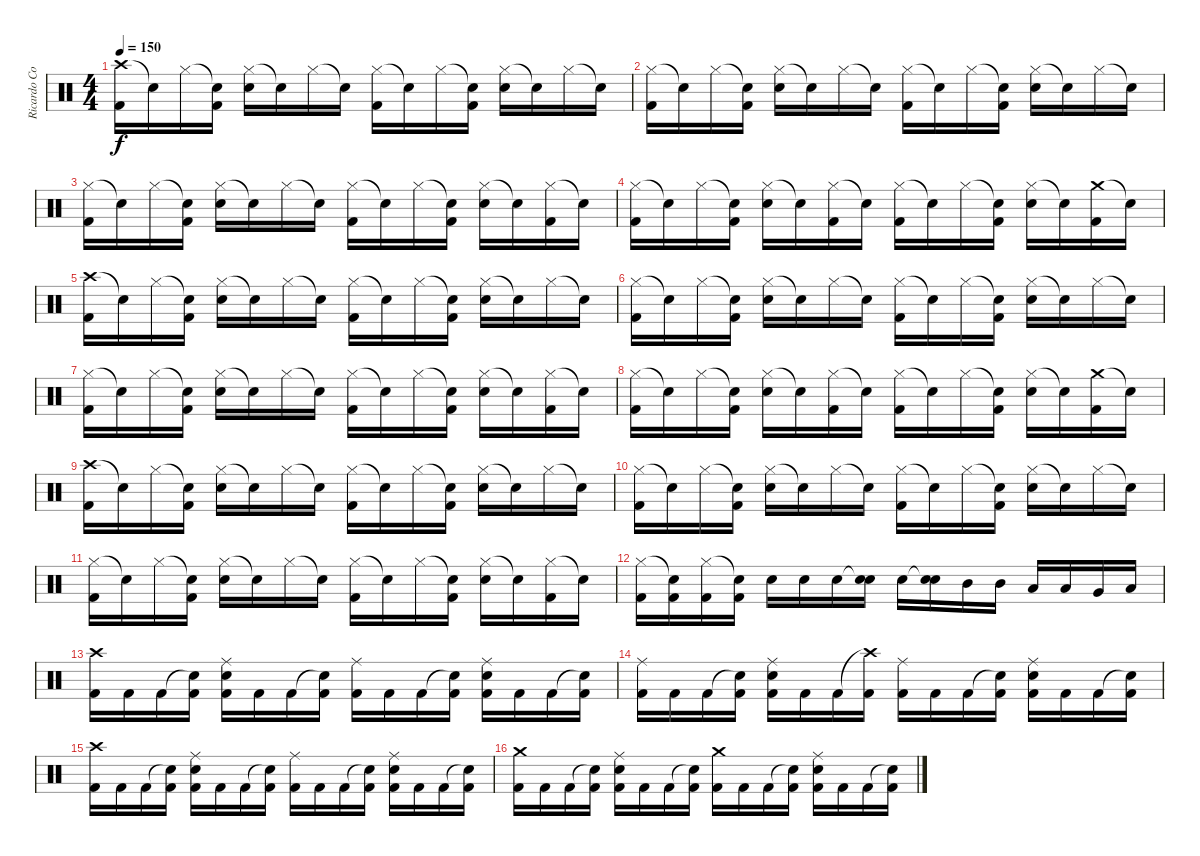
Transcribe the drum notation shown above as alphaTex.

\track ("Ricardo Confessori" "Ricardo Co") {instrument percussion}
\staff {score}
\articulation defaults
\ts (4 4)
\tempo 150
\clef neutral
\ks c
("Crash high (hit)" "Kick (hit) 2").16{dy f} "Snare (hit)"{t}.16 "Hi-Hat (closed)".16 ("Snare (hit)"{t} "Kick (hit) 2").16 ("Hi-Hat (closed)" "Electric Snare (hit)").16 "Snare (hit)"{t}.16 "Hi-Hat (closed)".16 "Snare (hit)"{t}.16 ("Hi-Hat (closed)" "Kick (hit) 2").16 "Snare (hit)"{t}.16 "Hi-Hat (closed)".16 ("Snare (hit)"{t} "Kick (hit) 2").16 ("Hi-Hat (closed)" "Electric Snare (hit)").16 "Snare (hit)"{t}.16 "Hi-Hat (closed)".16 "Snare (hit)"{t}.16 |
("Hi-Hat (closed)" "Kick (hit) 2").16 "Snare (hit)"{t}.16 "Hi-Hat (closed)".16 ("Snare (hit)"{t} "Kick (hit) 2").16 ("Hi-Hat (closed)" "Electric Snare (hit)").16 "Snare (hit)"{t}.16 "Hi-Hat (closed)".16 "Snare (hit)"{t}.16 ("Hi-Hat (closed)" "Kick (hit) 2").16 "Snare (hit)"{t}.16 "Hi-Hat (closed)".16 ("Snare (hit)"{t} "Kick (hit) 2").16 ("Hi-Hat (closed)" "Electric Snare (hit)").16 "Snare (hit)"{t}.16 "Hi-Hat (closed)".16 "Snare (hit)"{t}.16 |
("Hi-Hat (closed)" "Kick (hit) 2").16 "Snare (hit)"{t}.16 "Hi-Hat (closed)".16 ("Snare (hit)"{t} "Kick (hit) 2").16 ("Hi-Hat (closed)" "Electric Snare (hit)").16 "Snare (hit)"{t}.16 "Hi-Hat (closed)".16 "Snare (hit)"{t}.16 ("Hi-Hat (closed)" "Kick (hit) 2").16 "Snare (hit)"{t}.16 "Hi-Hat (closed)".16 ("Snare (hit)"{t} "Kick (hit) 2").16 ("Hi-Hat (closed)" "Electric Snare (hit)").16 "Snare (hit)"{t}.16 ("Hi-Hat (closed)" "Kick (hit) 2").16 "Snare (hit)"{t}.16 |
("Hi-Hat (closed)" "Kick (hit) 2").16 "Snare (hit)"{t}.16 "Hi-Hat (closed)".16 ("Snare (hit)"{t} "Kick (hit) 2").16 ("Hi-Hat (closed)" "Electric Snare (hit)").16 "Snare (hit)"{t}.16 ("Hi-Hat (closed)" "Kick (hit) 2").16 "Snare (hit)"{t}.16 ("Hi-Hat (closed)" "Kick (hit) 2").16 "Snare (hit)"{t}.16 "Hi-Hat (closed)".16 ("Snare (hit)"{t} "Kick (hit) 2").16 ("Hi-Hat (closed)" "Electric Snare (hit)").16 "Snare (hit)"{t}.16 ("Crash medium (hit)" "Kick (hit) 2").16 "Snare (hit)"{t}.16 |
("Crash high (hit)" "Kick (hit) 2").16 "Snare (hit)"{t}.16 "Hi-Hat (closed)".16 ("Snare (hit)"{t} "Kick (hit) 2").16 ("Hi-Hat (closed)" "Electric Snare (hit)").16 "Snare (hit)"{t}.16 "Hi-Hat (closed)".16 "Snare (hit)"{t}.16 ("Hi-Hat (closed)" "Kick (hit) 2").16 "Snare (hit)"{t}.16 "Hi-Hat (closed)".16 ("Snare (hit)"{t} "Kick (hit) 2").16 ("Hi-Hat (closed)" "Electric Snare (hit)").16 "Snare (hit)"{t}.16 "Hi-Hat (closed)".16 "Snare (hit)"{t}.16 |
("Hi-Hat (closed)" "Kick (hit) 2").16 "Snare (hit)"{t}.16 "Hi-Hat (closed)".16 ("Snare (hit)"{t} "Kick (hit) 2").16 ("Hi-Hat (closed)" "Electric Snare (hit)").16 "Snare (hit)"{t}.16 "Hi-Hat (closed)".16 "Snare (hit)"{t}.16 ("Hi-Hat (closed)" "Kick (hit) 2").16 "Snare (hit)"{t}.16 "Hi-Hat (closed)".16 ("Snare (hit)"{t} "Kick (hit) 2").16 ("Hi-Hat (closed)" "Electric Snare (hit)").16 "Snare (hit)"{t}.16 "Hi-Hat (closed)".16 "Snare (hit)"{t}.16 |
("Hi-Hat (closed)" "Kick (hit) 2").16 "Snare (hit)"{t}.16 "Hi-Hat (closed)".16 ("Snare (hit)"{t} "Kick (hit) 2").16 ("Hi-Hat (closed)" "Electric Snare (hit)").16 "Snare (hit)"{t}.16 "Hi-Hat (closed)".16 "Snare (hit)"{t}.16 ("Hi-Hat (closed)" "Kick (hit) 2").16 "Snare (hit)"{t}.16 "Hi-Hat (closed)".16 ("Snare (hit)"{t} "Kick (hit) 2").16 ("Hi-Hat (closed)" "Electric Snare (hit)").16 "Snare (hit)"{t}.16 ("Hi-Hat (closed)" "Kick (hit) 2").16 "Snare (hit)"{t}.16 |
("Hi-Hat (closed)" "Kick (hit) 2").16 "Snare (hit)"{t}.16 "Hi-Hat (closed)".16 ("Snare (hit)"{t} "Kick (hit) 2").16 ("Hi-Hat (closed)" "Electric Snare (hit)").16 "Snare (hit)"{t}.16 ("Hi-Hat (closed)" "Kick (hit) 2").16 "Snare (hit)"{t}.16 ("Hi-Hat (closed)" "Kick (hit) 2").16 "Snare (hit)"{t}.16 "Hi-Hat (closed)".16 ("Snare (hit)"{t} "Kick (hit) 2").16 ("Hi-Hat (closed)" "Electric Snare (hit)").16 "Snare (hit)"{t}.16 ("Crash medium (hit)" "Kick (hit) 2").16 "Snare (hit)"{t}.16 |
("Crash high (hit)" "Kick (hit) 2").16 "Snare (hit)"{t}.16 "Hi-Hat (closed)".16 ("Snare (hit)"{t} "Kick (hit) 2").16 ("Hi-Hat (closed)" "Electric Snare (hit)").16 "Snare (hit)"{t}.16 "Hi-Hat (closed)".16 "Snare (hit)"{t}.16 ("Hi-Hat (closed)" "Kick (hit) 2").16 "Snare (hit)"{t}.16 "Hi-Hat (closed)".16 ("Snare (hit)"{t} "Kick (hit) 2").16 ("Hi-Hat (closed)" "Electric Snare (hit)").16 "Snare (hit)"{t}.16 "Hi-Hat (closed)".16 "Snare (hit)"{t}.16 |
("Hi-Hat (closed)" "Kick (hit) 2").16 "Snare (hit)"{t}.16 "Hi-Hat (closed)".16 ("Snare (hit)"{t} "Kick (hit) 2").16 ("Hi-Hat (closed)" "Electric Snare (hit)").16 "Snare (hit)"{t}.16 "Hi-Hat (closed)".16 "Snare (hit)"{t}.16 ("Hi-Hat (closed)" "Kick (hit) 2").16 "Snare (hit)"{t}.16 "Hi-Hat (closed)".16 ("Snare (hit)"{t} "Kick (hit) 2").16 ("Hi-Hat (closed)" "Electric Snare (hit)").16 "Snare (hit)"{t}.16 "Hi-Hat (closed)".16 "Snare (hit)"{t}.16 |
("Hi-Hat (closed)" "Kick (hit) 2").16 "Snare (hit)"{t}.16 "Hi-Hat (closed)".16 ("Snare (hit)"{t} "Kick (hit) 2").16 ("Hi-Hat (closed)" "Electric Snare (hit)").16 "Snare (hit)"{t}.16 "Hi-Hat (closed)".16 "Snare (hit)"{t}.16 ("Hi-Hat (closed)" "Kick (hit) 2").16 "Snare (hit)"{t}.16 "Hi-Hat (closed)".16 ("Snare (hit)"{t} "Kick (hit) 2").16 ("Hi-Hat (closed)" "Electric Snare (hit)").16 "Snare (hit)"{t}.16 ("Hi-Hat (closed)" "Kick (hit) 2").16 "Snare (hit)"{t}.16 |
("Hi-Hat (closed)" "Kick (hit) 2").16 ("Snare (hit)"{t} "Kick (hit) 2").16 ("Hi-Hat (closed)" "Kick (hit) 2").16 ("Snare (hit)"{t} "Kick (hit) 2").16 "Electric Snare (hit)".16 "Electric Snare (hit)".16 "Electric Snare (hit)".16 ("Snare (hit)"{t} "Electric Snare (hit)").16 "Electric Snare (hit)".16 ("Snare (hit)"{t} "Electric Snare (hit)").16 "Mid Tom (hit)".16 "Mid Tom (hit)".16 "Low Tom (hit)".16 "Low Tom (hit)".16 "Very Low Tom (hit)".16 "Low Floor Tom (hit)".16 |
("Crash high (hit)" "Kick (hit) 2").16 "Kick (hit) 2".16 "Kick (hit) 2".16 ("Snare (hit)"{t} "Kick (hit) 2").16 ("Ride (middle)" "Electric Snare (hit)" "Kick (hit) 2").16 "Kick (hit) 2".16 "Kick (hit) 2".16 ("Snare (hit)"{t} "Kick (hit) 2").16 ("Ride (middle)" "Kick (hit) 2").16 "Kick (hit) 2".16 "Kick (hit) 2".16 ("Snare (hit)"{t} "Kick (hit) 2").16 ("Ride (middle)" "Electric Snare (hit)" "Kick (hit) 2").16 "Kick (hit) 2".16 "Kick (hit) 2".16 ("Snare (hit)"{t} "Kick (hit) 2").16 |
("Ride (middle)" "Kick (hit) 2").16 "Kick (hit) 2".16 "Kick (hit) 2".16 ("Snare (hit)"{t} "Kick (hit) 2").16 ("Ride (middle)" "Electric Snare (hit)" "Kick (hit) 2").16 "Kick (hit) 2".16 "Kick (hit) 2".16 ("Crash high (hit)"{t} "Kick (hit) 2").16 ("Ride (middle)" "Kick (hit) 2").16 "Kick (hit) 2".16 "Kick (hit) 2".16 ("Snare (hit)"{t} "Kick (hit) 2").16 ("Ride (middle)" "Electric Snare (hit)" "Kick (hit) 2").16 "Kick (hit) 2".16 "Kick (hit) 2".16 ("Snare (hit)"{t} "Kick (hit) 2").16 |
("Crash high (hit)" "Kick (hit) 2").16 "Kick (hit) 2".16 "Kick (hit) 2".16 ("Snare (hit)"{t} "Kick (hit) 2").16 ("Ride (middle)" "Electric Snare (hit)" "Kick (hit) 2").16 "Kick (hit) 2".16 "Kick (hit) 2".16 ("Snare (hit)"{t} "Kick (hit) 2").16 ("Ride (middle)" "Kick (hit) 2").16 "Kick (hit) 2".16 "Kick (hit) 2".16 ("Snare (hit)"{t} "Kick (hit) 2").16 ("Ride (middle)" "Electric Snare (hit)" "Kick (hit) 2").16 "Kick (hit) 2".16 "Kick (hit) 2".16 ("Snare (hit)"{t} "Kick (hit) 2").16 |
("Crash medium (hit)" "Kick (hit) 2").16 "Kick (hit) 2".16 "Kick (hit) 2".16 ("Snare (hit)"{t} "Kick (hit) 2").16 ("Ride (middle)" "Electric Snare (hit)" "Kick (hit) 2").16 "Kick (hit) 2".16 "Kick (hit) 2".16 ("Snare (hit)"{t} "Kick (hit) 2").16 ("Crash medium (hit)" "Kick (hit) 2").16 "Kick (hit) 2".16 "Kick (hit) 2".16 ("Snare (hit)"{t} "Kick (hit) 2").16 ("Ride (middle)" "Electric Snare (hit)" "Kick (hit) 2").16 "Kick (hit) 2".16 "Kick (hit) 2".16 ("Snare (hit)"{t} "Kick (hit) 2").16
